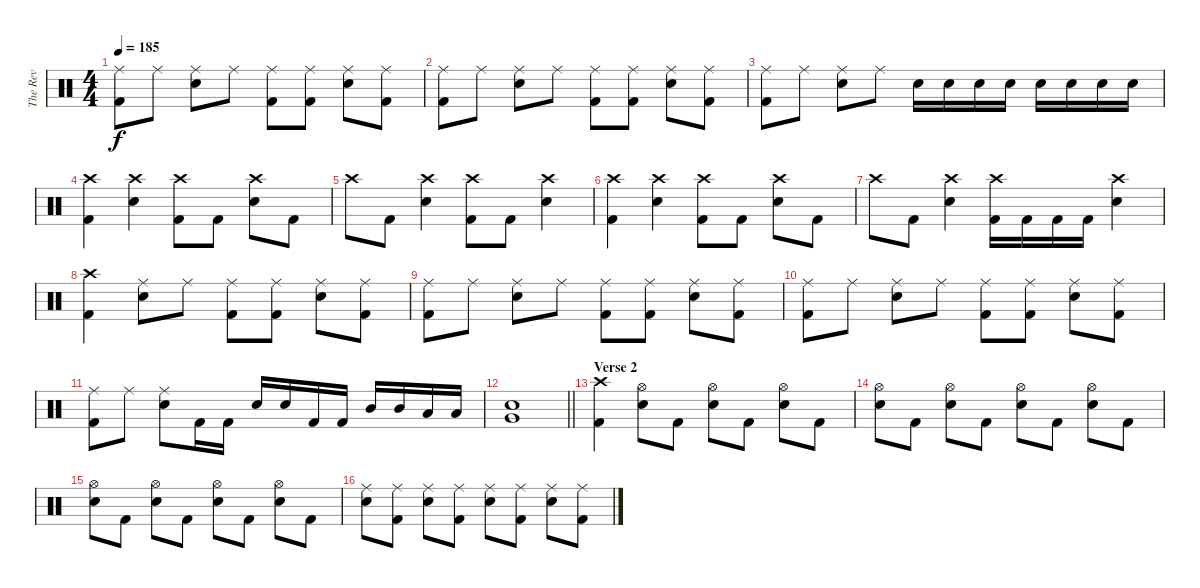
\track ("The Rev" "The Rev") {instrument percussion}
\staff {score}
\articulation defaults
\ts (4 4)
\tempo 185
\clef neutral
\ks c
("Ride (middle)" "Kick (hit) 2").8{dy f} "Ride (middle)".8 ("Ride (middle)" "Electric Snare (hit)").8 "Ride (middle)".8 ("Ride (middle)" "Kick (hit) 2").8 ("Ride (middle)" "Kick (hit) 2").8 ("Ride (middle)" "Electric Snare (hit)").8 ("Ride (middle)" "Kick (hit) 2").8 |
("Ride (middle)" "Kick (hit) 2").8 "Ride (middle)".8 ("Ride (middle)" "Electric Snare (hit)").8 "Ride (middle)".8 ("Ride (middle)" "Kick (hit) 2").8 ("Ride (middle)" "Kick (hit) 2").8 ("Ride (middle)" "Electric Snare (hit)").8 ("Ride (middle)" "Kick (hit) 2").8 |
("Ride (middle)" "Kick (hit) 2").8 "Ride (middle)".8 ("Ride (middle)" "Electric Snare (hit)").8 "Ride (middle)".8 "Electric Snare (hit)".16 "Electric Snare (hit)".16 "Electric Snare (hit)".16 "Electric Snare (hit)".16 "Electric Snare (hit)".16 "Electric Snare (hit)".16 "Electric Snare (hit)".16 "Electric Snare (hit)".16 |
("Crash high (hit)" "Kick (hit) 2").4 ("Crash high (hit)" "Electric Snare (hit)").4 ("Crash high (hit)" "Kick (hit) 2").8 "Kick (hit) 2".8 ("Crash high (hit)" "Electric Snare (hit)").8 "Kick (hit) 2".8 |
"Crash high (hit)".8 "Kick (hit) 2".8 ("Crash high (hit)" "Electric Snare (hit)").4 ("Crash high (hit)" "Kick (hit) 2").8 "Kick (hit) 2".8 ("Crash high (hit)" "Electric Snare (hit)").4 |
("Crash high (hit)" "Kick (hit) 2").4 ("Crash high (hit)" "Electric Snare (hit)").4 ("Crash high (hit)" "Kick (hit) 2").8 "Kick (hit) 2".8 ("Crash high (hit)" "Electric Snare (hit)").8 "Kick (hit) 2".8 |
"Crash high (hit)".8 "Kick (hit) 2".8 ("Crash high (hit)" "Electric Snare (hit)").4 ("Crash high (hit)" "Kick (hit) 2").16 "Kick (hit) 2".16 "Kick (hit) 2".16 "Kick (hit) 2".16 ("Crash high (hit)" "Electric Snare (hit)").4 |
("Crash high (hit)" "Kick (hit) 2").4 ("Ride (middle)" "Electric Snare (hit)").8 "Ride (middle)".8 ("Ride (middle)" "Kick (hit) 2").8 ("Ride (middle)" "Kick (hit) 2").8 ("Ride (middle)" "Electric Snare (hit)").8 ("Ride (middle)" "Kick (hit) 2").8 |
("Ride (middle)" "Kick (hit) 2").8 "Ride (middle)".8 ("Ride (middle)" "Electric Snare (hit)").8 "Ride (middle)".8 ("Ride (middle)" "Kick (hit) 2").8 ("Ride (middle)" "Kick (hit) 2").8 ("Ride (middle)" "Electric Snare (hit)").8 ("Ride (middle)" "Kick (hit) 2").8 |
("Ride (middle)" "Kick (hit) 2").8 "Ride (middle)".8 ("Ride (middle)" "Electric Snare (hit)").8 "Ride (middle)".8 ("Ride (middle)" "Kick (hit) 2").8 ("Ride (middle)" "Kick (hit) 2").8 ("Ride (middle)" "Electric Snare (hit)").8 ("Ride (middle)" "Kick (hit) 2").8 |
("Ride (middle)" "Kick (hit) 2").8 "Ride (middle)".8 ("Ride (middle)" "Electric Snare (hit)").8 "Kick (hit) 2".16 "Kick (hit) 2".16 "Electric Snare (hit)".16 "Electric Snare (hit)".16 "Kick (hit) 2".16 "Kick (hit) 2".16 "Mid Tom (hit)".16 "Mid Tom (hit)".16 "Low Tom (hit)".16 "Low Tom (hit)".16 |
\barLineRight lightlight
("Very Low Tom (hit)" "Electric Snare (hit)").1 |
\section ("" "Verse 2")
("Crash high (hit)" "Kick (hit) 2").4 ("Hi-Hat (open)" "Electric Snare (hit)").8 "Kick (hit) 2".8 ("Hi-Hat (open)" "Electric Snare (hit)").8 "Kick (hit) 2".8 ("Hi-Hat (open)" "Electric Snare (hit)").8 "Kick (hit) 2".8 |
("Hi-Hat (open)" "Electric Snare (hit)").8 "Kick (hit) 2".8 ("Hi-Hat (open)" "Electric Snare (hit)").8 "Kick (hit) 2".8 ("Hi-Hat (open)" "Electric Snare (hit)").8 "Kick (hit) 2".8 ("Hi-Hat (open)" "Electric Snare (hit)").8 "Kick (hit) 2".8 |
("Hi-Hat (open)" "Electric Snare (hit)").8 "Kick (hit) 2".8 ("Hi-Hat (open)" "Electric Snare (hit)").8 "Kick (hit) 2".8 ("Hi-Hat (open)" "Electric Snare (hit)").8 "Kick (hit) 2".8 ("Hi-Hat (open)" "Electric Snare (hit)").8 "Kick (hit) 2".8 |
("Ride (middle)" "Electric Snare (hit)").8 ("Ride (middle)" "Kick (hit) 2").8 ("Ride (middle)" "Electric Snare (hit)").8 ("Ride (middle)" "Kick (hit) 2").8 ("Ride (middle)" "Electric Snare (hit)").8 ("Ride (middle)" "Kick (hit) 2").8 ("Ride (middle)" "Electric Snare (hit)").8 ("Ride (middle)" "Kick (hit) 2").8
